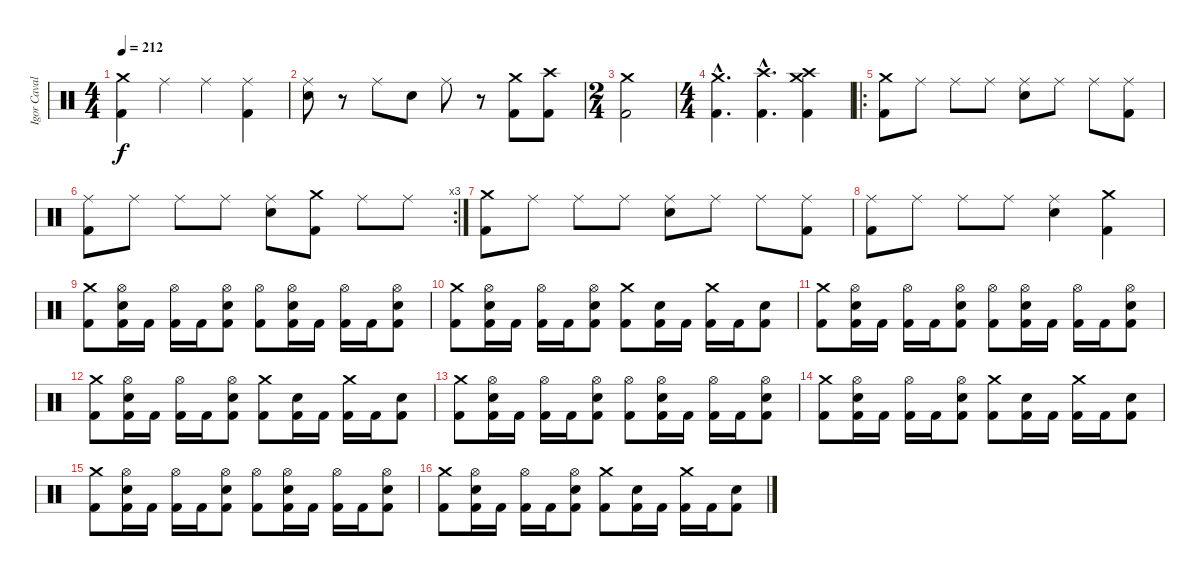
\track ("Igor Cavalera" "Igor Caval") {instrument percussion}
\staff {score}
\articulation defaults
\ts (4 4)
\tempo 212
\clef neutral
\ks c
("Kick (hit) 2" "Crash medium (hit)").4{dy f} "Ride (middle)".4 "Ride (middle)".4 ("Kick (hit) 2" "Ride (middle)").4 |
("Snare (hit) 2" "Ride (middle)").8 r.8 "Ride (middle)".8 "Snare (hit) 2".8 "Ride (middle)".8 r.8 ("Crash medium (hit)" "Kick (hit) 2").8 ("Crash high (hit)" "Kick (hit) 2").8 |
\ts (2 4)
("Crash medium (hit)" "Kick (hit) 2").2 |
\ts (4 4)
("Crash medium (hit)"{hac} "Kick (hit) 2"{hac}).4{d} ("Crash high (hit)"{hac} "Kick (hit) 2"{hac}).4{d} ("Crash high (hit)" "Crash medium (hit)" "Kick (hit) 2").4 |
\ro
("Kick (hit) 2" "Crash medium (hit)").8 "Ride (middle)".8 "Ride (middle)".8 "Ride (middle)".8 ("Snare (hit) 2" "Ride (middle)").8 "Ride (middle)".8 "Ride (middle)".8 ("Kick (hit) 2" "Ride (middle)").8 |
\rc 3
("Kick (hit) 2" "Ride (middle)").8 "Ride (middle)".8 "Ride (middle)".8 "Ride (middle)".8 ("Snare (hit) 2" "Ride (middle)").8 ("Kick (hit) 2" "Crash medium (hit)").8 "Ride (middle)".8 "Ride (middle)".8 |
("Kick (hit) 2" "Crash medium (hit)").8 "Ride (middle)".8 "Ride (middle)".8 "Ride (middle)".8 ("Snare (hit) 2" "Ride (middle)").8 "Ride (middle)".8 "Ride (middle)".8 ("Kick (hit) 2" "Ride (middle)").8 |
("Kick (hit) 2" "Ride (middle)").8 "Ride (middle)".8 "Ride (middle)".8 "Ride (middle)".8 ("Snare (hit) 2" "Ride (middle)").4 ("Kick (hit) 2" "Crash medium (hit)").4 |
("Crash medium (hit)" "Kick (hit) 2").8 ("Hi-Hat (open)" "Snare (hit) 2" "Kick (hit) 2").16 "Kick (hit) 2".16 ("Hi-Hat (open)" "Kick (hit) 2").16 "Kick (hit) 2".16 ("Hi-Hat (open)" "Snare (hit) 2" "Kick (hit) 2").8 ("Hi-Hat (open)" "Kick (hit) 2").8 ("Hi-Hat (open)" "Snare (hit) 2" "Kick (hit) 2").16 "Kick (hit) 2".16 ("Hi-Hat (open)" "Kick (hit) 2").16 "Kick (hit) 2".16 ("Hi-Hat (open)" "Snare (hit) 2" "Kick (hit) 2").8 |
("Crash medium (hit)" "Kick (hit) 2").8 ("Hi-Hat (open)" "Snare (hit) 2" "Kick (hit) 2").16 "Kick (hit) 2".16 ("Hi-Hat (open)" "Kick (hit) 2").16 "Kick (hit) 2".16 ("Hi-Hat (open)" "Snare (hit) 2" "Kick (hit) 2").8 ("Crash medium (hit)" "Kick (hit) 2").8 ("Snare (hit) 2" "Kick (hit) 2").16 "Kick (hit) 2".16 ("Crash medium (hit)" "Kick (hit) 2").16 "Kick (hit) 2".16 ("Snare (hit) 2" "Kick (hit) 2").8 |
("Crash medium (hit)" "Kick (hit) 2").8 ("Hi-Hat (open)" "Snare (hit) 2" "Kick (hit) 2").16 "Kick (hit) 2".16 ("Hi-Hat (open)" "Kick (hit) 2").16 "Kick (hit) 2".16 ("Hi-Hat (open)" "Snare (hit) 2" "Kick (hit) 2").8 ("Hi-Hat (open)" "Kick (hit) 2").8 ("Hi-Hat (open)" "Snare (hit) 2" "Kick (hit) 2").16 "Kick (hit) 2".16 ("Hi-Hat (open)" "Kick (hit) 2").16 "Kick (hit) 2".16 ("Hi-Hat (open)" "Snare (hit) 2" "Kick (hit) 2").8 |
("Crash medium (hit)" "Kick (hit) 2").8 ("Hi-Hat (open)" "Snare (hit) 2" "Kick (hit) 2").16 "Kick (hit) 2".16 ("Hi-Hat (open)" "Kick (hit) 2").16 "Kick (hit) 2".16 ("Hi-Hat (open)" "Snare (hit) 2" "Kick (hit) 2").8 ("Crash medium (hit)" "Kick (hit) 2").8 ("Snare (hit) 2" "Kick (hit) 2").16 "Kick (hit) 2".16 ("Crash medium (hit)" "Kick (hit) 2").16 "Kick (hit) 2".16 ("Snare (hit) 2" "Kick (hit) 2").8 |
("Crash medium (hit)" "Kick (hit) 2").8 ("Hi-Hat (open)" "Snare (hit) 2" "Kick (hit) 2").16 "Kick (hit) 2".16 ("Hi-Hat (open)" "Kick (hit) 2").16 "Kick (hit) 2".16 ("Hi-Hat (open)" "Snare (hit) 2" "Kick (hit) 2").8 ("Hi-Hat (open)" "Kick (hit) 2").8 ("Hi-Hat (open)" "Snare (hit) 2" "Kick (hit) 2").16 "Kick (hit) 2".16 ("Hi-Hat (open)" "Kick (hit) 2").16 "Kick (hit) 2".16 ("Hi-Hat (open)" "Snare (hit) 2" "Kick (hit) 2").8 |
("Crash medium (hit)" "Kick (hit) 2").8 ("Hi-Hat (open)" "Snare (hit) 2" "Kick (hit) 2").16 "Kick (hit) 2".16 ("Hi-Hat (open)" "Kick (hit) 2").16 "Kick (hit) 2".16 ("Hi-Hat (open)" "Snare (hit) 2" "Kick (hit) 2").8 ("Crash medium (hit)" "Kick (hit) 2").8 ("Snare (hit) 2" "Kick (hit) 2").16 "Kick (hit) 2".16 ("Crash medium (hit)" "Kick (hit) 2").16 "Kick (hit) 2".16 ("Snare (hit) 2" "Kick (hit) 2").8 |
("Crash medium (hit)" "Kick (hit) 2").8 ("Hi-Hat (open)" "Snare (hit) 2" "Kick (hit) 2").16 "Kick (hit) 2".16 ("Hi-Hat (open)" "Kick (hit) 2").16 "Kick (hit) 2".16 ("Hi-Hat (open)" "Snare (hit) 2" "Kick (hit) 2").8 ("Hi-Hat (open)" "Kick (hit) 2").8 ("Hi-Hat (open)" "Snare (hit) 2" "Kick (hit) 2").16 "Kick (hit) 2".16 ("Hi-Hat (open)" "Kick (hit) 2").16 "Kick (hit) 2".16 ("Hi-Hat (open)" "Snare (hit) 2" "Kick (hit) 2").8 |
("Crash medium (hit)" "Kick (hit) 2").8 ("Hi-Hat (open)" "Snare (hit) 2" "Kick (hit) 2").16 "Kick (hit) 2".16 ("Hi-Hat (open)" "Kick (hit) 2").16 "Kick (hit) 2".16 ("Hi-Hat (open)" "Snare (hit) 2" "Kick (hit) 2").8 ("Crash medium (hit)" "Kick (hit) 2").8 ("Snare (hit) 2" "Kick (hit) 2").16 "Kick (hit) 2".16 ("Crash medium (hit)" "Kick (hit) 2").16 "Kick (hit) 2".16 ("Snare (hit) 2" "Kick (hit) 2").8
